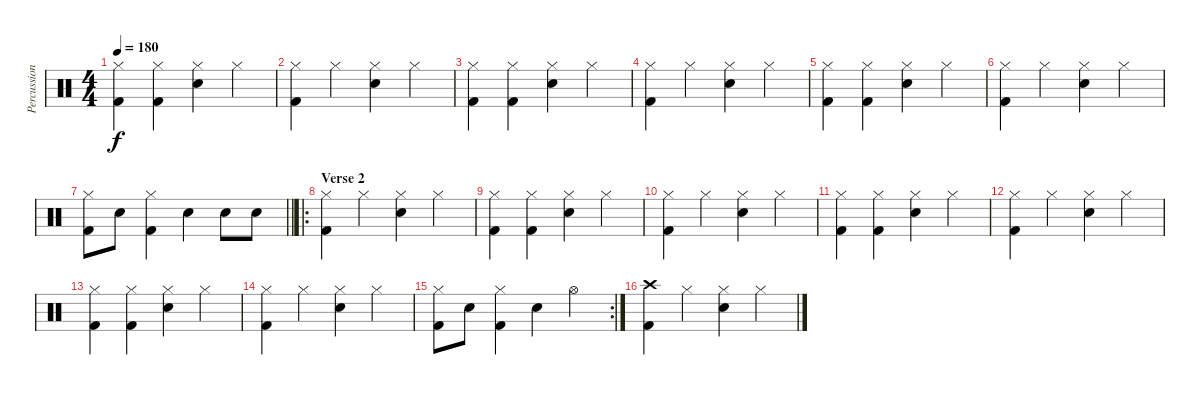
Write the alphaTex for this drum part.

\track ("Percussion" "Percussion") {instrument percussion}
\staff {score}
\articulation defaults
\ts (4 4)
\tempo 180
\clef neutral
\ks c
("Hi-Hat (closed)" "Kick (hit) 2").4{dy f} ("Hi-Hat (closed)" "Kick (hit) 2").4 ("Hi-Hat (closed)" "Snare (hit) 2").4 "Hi-Hat (closed)".4 |
("Hi-Hat (closed)" "Kick (hit) 2").4 "Hi-Hat (closed)".4 ("Hi-Hat (closed)" "Snare (hit) 2").4 "Hi-Hat (closed)".4 |
("Hi-Hat (closed)" "Kick (hit) 2").4 ("Hi-Hat (closed)" "Kick (hit) 2").4 ("Hi-Hat (closed)" "Snare (hit) 2").4 "Hi-Hat (closed)".4 |
("Hi-Hat (closed)" "Kick (hit) 2").4 "Hi-Hat (closed)".4 ("Hi-Hat (closed)" "Snare (hit) 2").4 "Hi-Hat (closed)".4 |
("Hi-Hat (closed)" "Kick (hit) 2").4 ("Hi-Hat (closed)" "Kick (hit) 2").4 ("Hi-Hat (closed)" "Snare (hit) 2").4 "Hi-Hat (closed)".4 |
("Hi-Hat (closed)" "Kick (hit) 2").4 "Hi-Hat (closed)".4 ("Hi-Hat (closed)" "Snare (hit) 2").4 "Hi-Hat (closed)".4 |
\barLineRight lightlight
("Hi-Hat (closed)" "Kick (hit) 2").8 "Snare (hit) 2".8 ("Hi-Hat (closed)" "Kick (hit) 2").4 "Snare (hit) 2".4 "Snare (hit) 2".8 "Snare (hit) 2".8 |
\ro
\section ("" "Verse 2")
("Hi-Hat (closed)" "Kick (hit) 2").4 "Hi-Hat (closed)".4 ("Hi-Hat (closed)" "Snare (hit) 2").4 "Hi-Hat (closed)".4 |
("Hi-Hat (closed)" "Kick (hit) 2").4 ("Hi-Hat (closed)" "Kick (hit) 2").4 ("Hi-Hat (closed)" "Snare (hit) 2").4 "Hi-Hat (closed)".4 |
("Hi-Hat (closed)" "Kick (hit) 2").4 "Hi-Hat (closed)".4 ("Hi-Hat (closed)" "Snare (hit) 2").4 "Hi-Hat (closed)".4 |
("Hi-Hat (closed)" "Kick (hit) 2").4 ("Hi-Hat (closed)" "Kick (hit) 2").4 ("Hi-Hat (closed)" "Snare (hit) 2").4 "Hi-Hat (closed)".4 |
("Hi-Hat (closed)" "Kick (hit) 2").4 "Hi-Hat (closed)".4 ("Hi-Hat (closed)" "Snare (hit) 2").4 "Hi-Hat (closed)".4 |
("Hi-Hat (closed)" "Kick (hit) 2").4 ("Hi-Hat (closed)" "Kick (hit) 2").4 ("Hi-Hat (closed)" "Snare (hit) 2").4 "Hi-Hat (closed)".4 |
("Hi-Hat (closed)" "Kick (hit) 2").4 "Hi-Hat (closed)".4 ("Hi-Hat (closed)" "Snare (hit) 2").4 "Hi-Hat (closed)".4 |
\rc 2
("Hi-Hat (closed)" "Kick (hit) 2").8 "Snare (hit) 2".8 ("Hi-Hat (closed)" "Kick (hit) 2").4 "Snare (hit) 2".4 "Hi-Hat (open)".4 |
("Crash high (hit)" "Kick (hit) 2").4 "Hi-Hat (closed)".4 ("Hi-Hat (closed)" "Snare (hit) 2").4 "Hi-Hat (closed)".4
